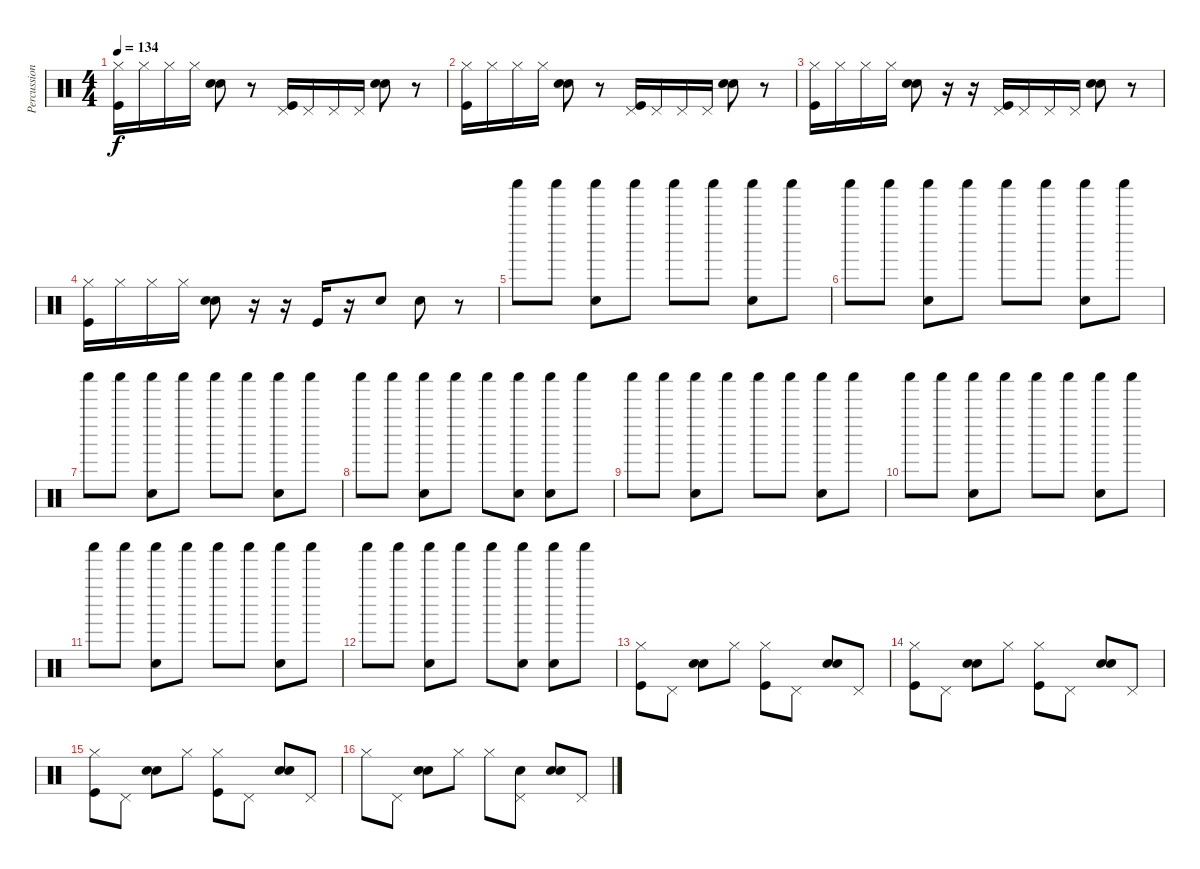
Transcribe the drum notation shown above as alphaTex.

\track ("Percussion" "Percussion") {instrument percussion}
\staff {score}
\articulation defaults
\ts (4 4)
\tempo 134
\clef neutral
\ks c
("Hi-Hat (closed)" "Kick (hit)").16{dy f} "Hi-Hat (closed)".16 "Hi-Hat (closed)".16 "Hi-Hat (closed)".16 ("Hand Clap (hit)" "Electric Snare (hit)").8 r.8 ("Pedal Hi-Hat (hit)" "Kick (hit)").16 "Pedal Hi-Hat (hit)".16 "Pedal Hi-Hat (hit)".16 "Pedal Hi-Hat (hit)".16 ("Hand Clap (hit)" "Electric Snare (hit)").8 r.8 |
("Hi-Hat (closed)" "Kick (hit)").16 "Hi-Hat (closed)".16 "Hi-Hat (closed)".16 "Hi-Hat (closed)".16 ("Hand Clap (hit)" "Electric Snare (hit)").8 r.8 ("Pedal Hi-Hat (hit)" "Kick (hit)").16 "Pedal Hi-Hat (hit)".16 "Pedal Hi-Hat (hit)".16 "Pedal Hi-Hat (hit)".16 ("Hand Clap (hit)" "Electric Snare (hit)").8 r.8 |
("Hi-Hat (closed)" "Kick (hit)").16 "Hi-Hat (closed)".16 "Hi-Hat (closed)".16 "Hi-Hat (closed)".16 ("Hand Clap (hit)" "Electric Snare (hit)").8 r.16 r.16 ("Pedal Hi-Hat (hit)" "Kick (hit)").16 "Pedal Hi-Hat (hit)".16 "Pedal Hi-Hat (hit)".16 "Pedal Hi-Hat (hit)".16 ("Hand Clap (hit)" "Electric Snare (hit)").8 r.8 |
("Hi-Hat (closed)" "Kick (hit)").16 "Hi-Hat (closed)".16 "Hi-Hat (closed)".16 "Hi-Hat (closed)".16 ("Hand Clap (hit)" "Electric Snare (hit)").8 r.16 r.16 "Kick (hit)".16 r.16 "Hand Clap (hit)".8 "Hand Clap (hit)".8 r.8 |
"Shaker (hit)".8 "Shaker (hit)".8 ("Shaker (hit)" "Hand Clap (hit)").8 "Shaker (hit)".8 "Shaker (hit)".8 "Shaker (hit)".8 ("Shaker (hit)" "Hand Clap (hit)").8 "Shaker (hit)".8 |
"Shaker (hit)".8 "Shaker (hit)".8 ("Shaker (hit)" "Hand Clap (hit)").8 "Shaker (hit)".8 "Shaker (hit)".8 "Shaker (hit)".8 ("Shaker (hit)" "Hand Clap (hit)").8 "Shaker (hit)".8 |
"Shaker (hit)".8 "Shaker (hit)".8 ("Shaker (hit)" "Hand Clap (hit)").8 "Shaker (hit)".8 "Shaker (hit)".8 "Shaker (hit)".8 ("Shaker (hit)" "Hand Clap (hit)").8 "Shaker (hit)".8 |
"Shaker (hit)".8 "Shaker (hit)".8 ("Shaker (hit)" "Hand Clap (hit)").8 "Shaker (hit)".8 "Shaker (hit)".8 ("Shaker (hit)" "Hand Clap (hit)").8 ("Shaker (hit)" "Hand Clap (hit)").8 "Shaker (hit)".8 |
"Shaker (hit)".8 "Shaker (hit)".8 ("Shaker (hit)" "Hand Clap (hit)").8 "Shaker (hit)".8 "Shaker (hit)".8 "Shaker (hit)".8 ("Shaker (hit)" "Hand Clap (hit)").8 "Shaker (hit)".8 |
"Shaker (hit)".8 "Shaker (hit)".8 ("Shaker (hit)" "Hand Clap (hit)").8 "Shaker (hit)".8 "Shaker (hit)".8 "Shaker (hit)".8 ("Shaker (hit)" "Hand Clap (hit)").8 "Shaker (hit)".8 |
"Shaker (hit)".8 "Shaker (hit)".8 ("Shaker (hit)" "Hand Clap (hit)").8 "Shaker (hit)".8 "Shaker (hit)".8 "Shaker (hit)".8 ("Shaker (hit)" "Hand Clap (hit)").8 "Shaker (hit)".8 |
"Shaker (hit)".8 "Shaker (hit)".8 ("Shaker (hit)" "Hand Clap (hit)").8 "Shaker (hit)".8 "Shaker (hit)".8 ("Shaker (hit)" "Hand Clap (hit)").8 ("Shaker (hit)" "Hand Clap (hit)").8 "Shaker (hit)".8 |
("Hi-Hat (closed)" "Kick (hit)").8 "Pedal Hi-Hat (hit)".8 ("Hand Clap (hit)" "Electric Snare (hit)").8 "Hi-Hat (closed)".8 ("Hi-Hat (closed)" "Kick (hit)").8 "Pedal Hi-Hat (hit)".8 ("Hand Clap (hit)" "Electric Snare (hit)").8 "Pedal Hi-Hat (hit)".8 |
("Hi-Hat (closed)" "Kick (hit)").8 "Pedal Hi-Hat (hit)".8 ("Hand Clap (hit)" "Electric Snare (hit)").8 "Hi-Hat (closed)".8 ("Hi-Hat (closed)" "Kick (hit)").8 "Pedal Hi-Hat (hit)".8 ("Hand Clap (hit)" "Electric Snare (hit)").8 "Pedal Hi-Hat (hit)".8 |
("Hi-Hat (closed)" "Kick (hit)").8 "Pedal Hi-Hat (hit)".8 ("Hand Clap (hit)" "Electric Snare (hit)").8 "Hi-Hat (closed)".8 ("Hi-Hat (closed)" "Kick (hit)").8 "Pedal Hi-Hat (hit)".8 ("Hand Clap (hit)" "Electric Snare (hit)").8 "Pedal Hi-Hat (hit)".8 |
"Hi-Hat (closed)".8 "Pedal Hi-Hat (hit)".8 ("Hand Clap (hit)" "Electric Snare (hit)").8 "Hi-Hat (closed)".8 "Hi-Hat (closed)".8 ("Pedal Hi-Hat (hit)" "Hand Clap (hit)").8 ("Hand Clap (hit)" "Electric Snare (hit)").8 "Pedal Hi-Hat (hit)".8
